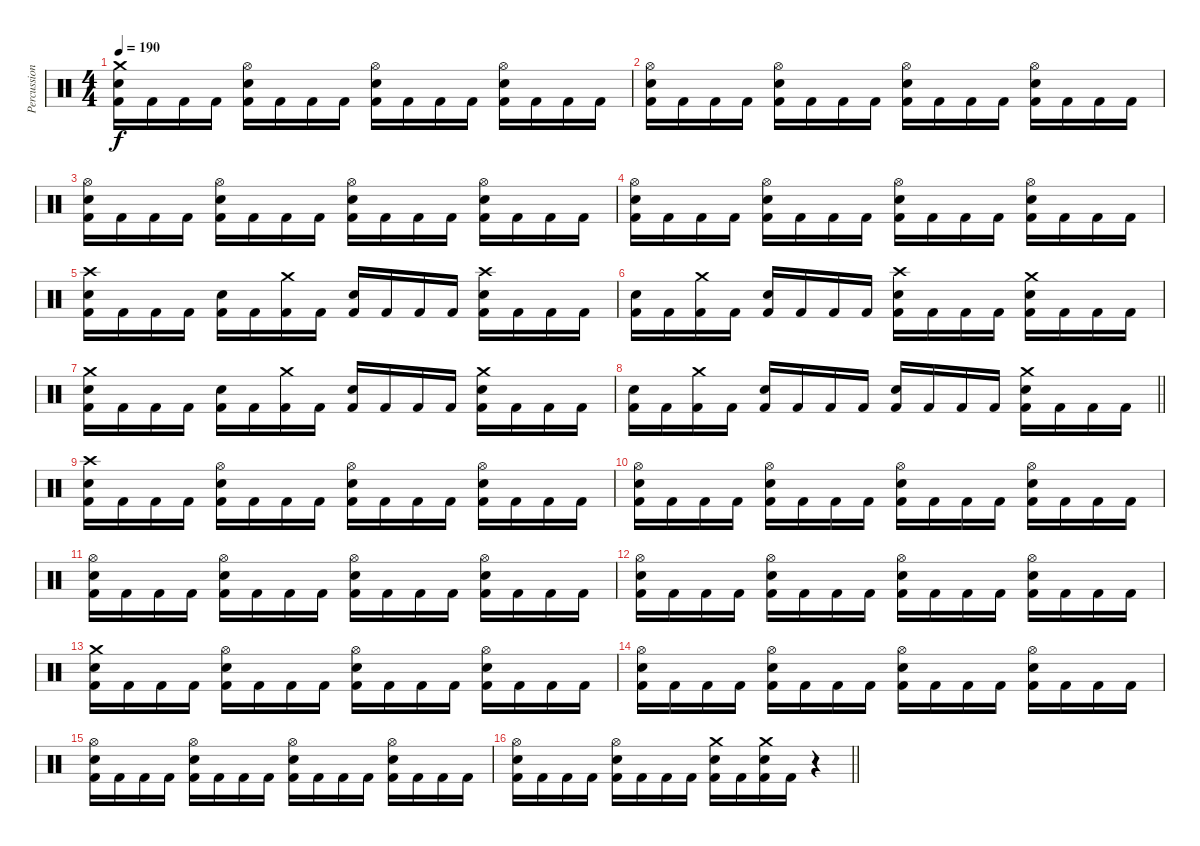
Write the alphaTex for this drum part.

\track ("Percussion" "Percussion") {instrument percussion}
\staff {score}
\articulation defaults
\ts (4 4)
\tempo 190
\clef neutral
\ks c
("Crash medium (hit)" "Snare (hit) 2" "Kick (hit) 2").16{dy f} "Kick (hit) 2".16 "Kick (hit) 2".16 "Kick (hit) 2".16 ("Hi-Hat (open)" "Snare (hit) 2" "Kick (hit) 2").16 "Kick (hit) 2".16 "Kick (hit) 2".16 "Kick (hit) 2".16 ("Hi-Hat (open)" "Snare (hit) 2" "Kick (hit) 2").16 "Kick (hit) 2".16 "Kick (hit) 2".16 "Kick (hit) 2".16 ("Hi-Hat (open)" "Snare (hit) 2" "Kick (hit) 2").16 "Kick (hit) 2".16 "Kick (hit) 2".16 "Kick (hit) 2".16 |
("Hi-Hat (open)" "Snare (hit) 2" "Kick (hit) 2").16 "Kick (hit) 2".16 "Kick (hit) 2".16 "Kick (hit) 2".16 ("Hi-Hat (open)" "Snare (hit) 2" "Kick (hit) 2").16 "Kick (hit) 2".16 "Kick (hit) 2".16 "Kick (hit) 2".16 ("Hi-Hat (open)" "Snare (hit) 2" "Kick (hit) 2").16 "Kick (hit) 2".16 "Kick (hit) 2".16 "Kick (hit) 2".16 ("Hi-Hat (open)" "Snare (hit) 2" "Kick (hit) 2").16 "Kick (hit) 2".16 "Kick (hit) 2".16 "Kick (hit) 2".16 |
("Hi-Hat (open)" "Snare (hit) 2" "Kick (hit) 2").16 "Kick (hit) 2".16 "Kick (hit) 2".16 "Kick (hit) 2".16 ("Hi-Hat (open)" "Snare (hit) 2" "Kick (hit) 2").16 "Kick (hit) 2".16 "Kick (hit) 2".16 "Kick (hit) 2".16 ("Hi-Hat (open)" "Snare (hit) 2" "Kick (hit) 2").16 "Kick (hit) 2".16 "Kick (hit) 2".16 "Kick (hit) 2".16 ("Hi-Hat (open)" "Snare (hit) 2" "Kick (hit) 2").16 "Kick (hit) 2".16 "Kick (hit) 2".16 "Kick (hit) 2".16 |
("Hi-Hat (open)" "Snare (hit) 2" "Kick (hit) 2").16 "Kick (hit) 2".16 "Kick (hit) 2".16 "Kick (hit) 2".16 ("Hi-Hat (open)" "Snare (hit) 2" "Kick (hit) 2").16 "Kick (hit) 2".16 "Kick (hit) 2".16 "Kick (hit) 2".16 ("Hi-Hat (open)" "Snare (hit) 2" "Kick (hit) 2").16 "Kick (hit) 2".16 "Kick (hit) 2".16 "Kick (hit) 2".16 ("Hi-Hat (open)" "Snare (hit) 2" "Kick (hit) 2").16 "Kick (hit) 2".16 "Kick (hit) 2".16 "Kick (hit) 2".16 |
("Crash high (hit)" "Snare (hit) 2" "Kick (hit) 2").16 "Kick (hit) 2".16 "Kick (hit) 2".16 "Kick (hit) 2".16 ("Snare (hit) 2" "Kick (hit) 2").16 "Kick (hit) 2".16 ("Crash medium (hit)" "Kick (hit) 2").16 "Kick (hit) 2".16 ("Snare (hit) 2" "Kick (hit) 2").16 "Kick (hit) 2".16 "Kick (hit) 2".16 "Kick (hit) 2".16 ("Crash high (hit)" "Snare (hit) 2" "Kick (hit) 2").16 "Kick (hit) 2".16 "Kick (hit) 2".16 "Kick (hit) 2".16 |
("Snare (hit) 2" "Kick (hit) 2").16 "Kick (hit) 2".16 ("Crash medium (hit)" "Kick (hit) 2").16 "Kick (hit) 2".16 ("Snare (hit) 2" "Kick (hit) 2").16 "Kick (hit) 2".16 "Kick (hit) 2".16 "Kick (hit) 2".16 ("Crash high (hit)" "Snare (hit) 2" "Kick (hit) 2").16 "Kick (hit) 2".16 "Kick (hit) 2".16 "Kick (hit) 2".16 ("Crash medium (hit)" "Snare (hit) 2" "Kick (hit) 2").16 "Kick (hit) 2".16 "Kick (hit) 2".16 "Kick (hit) 2".16 |
("Crash medium (hit)" "Snare (hit) 2" "Kick (hit) 2").16 "Kick (hit) 2".16 "Kick (hit) 2".16 "Kick (hit) 2".16 ("Snare (hit) 2" "Kick (hit) 2").16 "Kick (hit) 2".16 ("Crash medium (hit)" "Kick (hit) 2").16 "Kick (hit) 2".16 ("Snare (hit) 2" "Kick (hit) 2").16 "Kick (hit) 2".16 "Kick (hit) 2".16 "Kick (hit) 2".16 ("Crash medium (hit)" "Snare (hit) 2" "Kick (hit) 2").16 "Kick (hit) 2".16 "Kick (hit) 2".16 "Kick (hit) 2".16 |
\barLineRight lightlight
("Snare (hit) 2" "Kick (hit) 2").16 "Kick (hit) 2".16 ("Crash medium (hit)" "Kick (hit) 2").16 "Kick (hit) 2".16 ("Snare (hit) 2" "Kick (hit) 2").16 "Kick (hit) 2".16 "Kick (hit) 2".16 "Kick (hit) 2".16 ("Snare (hit) 2" "Kick (hit) 2").16 "Kick (hit) 2".16 "Kick (hit) 2".16 "Kick (hit) 2".16 ("Crash medium (hit)" "Snare (hit) 2" "Kick (hit) 2").16 "Kick (hit) 2".16 "Kick (hit) 2".16 "Kick (hit) 2".16 |
("Crash high (hit)" "Snare (hit) 2" "Kick (hit) 2").16 "Kick (hit) 2".16 "Kick (hit) 2".16 "Kick (hit) 2".16 ("Hi-Hat (open)" "Snare (hit) 2" "Kick (hit) 2").16 "Kick (hit) 2".16 "Kick (hit) 2".16 "Kick (hit) 2".16 ("Hi-Hat (open)" "Snare (hit) 2" "Kick (hit) 2").16 "Kick (hit) 2".16 "Kick (hit) 2".16 "Kick (hit) 2".16 ("Hi-Hat (open)" "Snare (hit) 2" "Kick (hit) 2").16 "Kick (hit) 2".16 "Kick (hit) 2".16 "Kick (hit) 2".16 |
("Hi-Hat (open)" "Snare (hit) 2" "Kick (hit) 2").16 "Kick (hit) 2".16 "Kick (hit) 2".16 "Kick (hit) 2".16 ("Hi-Hat (open)" "Snare (hit) 2" "Kick (hit) 2").16 "Kick (hit) 2".16 "Kick (hit) 2".16 "Kick (hit) 2".16 ("Hi-Hat (open)" "Snare (hit) 2" "Kick (hit) 2").16 "Kick (hit) 2".16 "Kick (hit) 2".16 "Kick (hit) 2".16 ("Hi-Hat (open)" "Snare (hit) 2" "Kick (hit) 2").16 "Kick (hit) 2".16 "Kick (hit) 2".16 "Kick (hit) 2".16 |
("Hi-Hat (open)" "Snare (hit) 2" "Kick (hit) 2").16 "Kick (hit) 2".16 "Kick (hit) 2".16 "Kick (hit) 2".16 ("Hi-Hat (open)" "Snare (hit) 2" "Kick (hit) 2").16 "Kick (hit) 2".16 "Kick (hit) 2".16 "Kick (hit) 2".16 ("Hi-Hat (open)" "Snare (hit) 2" "Kick (hit) 2").16 "Kick (hit) 2".16 "Kick (hit) 2".16 "Kick (hit) 2".16 ("Hi-Hat (open)" "Snare (hit) 2" "Kick (hit) 2").16 "Kick (hit) 2".16 "Kick (hit) 2".16 "Kick (hit) 2".16 |
("Hi-Hat (open)" "Snare (hit) 2" "Kick (hit) 2").16 "Kick (hit) 2".16 "Kick (hit) 2".16 "Kick (hit) 2".16 ("Hi-Hat (open)" "Snare (hit) 2" "Kick (hit) 2").16 "Kick (hit) 2".16 "Kick (hit) 2".16 "Kick (hit) 2".16 ("Hi-Hat (open)" "Snare (hit) 2" "Kick (hit) 2").16 "Kick (hit) 2".16 "Kick (hit) 2".16 "Kick (hit) 2".16 ("Hi-Hat (open)" "Snare (hit) 2" "Kick (hit) 2").16 "Kick (hit) 2".16 "Kick (hit) 2".16 "Kick (hit) 2".16 |
("Crash medium (hit)" "Snare (hit) 2" "Kick (hit) 2").16 "Kick (hit) 2".16 "Kick (hit) 2".16 "Kick (hit) 2".16 ("Hi-Hat (open)" "Snare (hit) 2" "Kick (hit) 2").16 "Kick (hit) 2".16 "Kick (hit) 2".16 "Kick (hit) 2".16 ("Hi-Hat (open)" "Snare (hit) 2" "Kick (hit) 2").16 "Kick (hit) 2".16 "Kick (hit) 2".16 "Kick (hit) 2".16 ("Hi-Hat (open)" "Snare (hit) 2" "Kick (hit) 2").16 "Kick (hit) 2".16 "Kick (hit) 2".16 "Kick (hit) 2".16 |
("Hi-Hat (open)" "Snare (hit) 2" "Kick (hit) 2").16 "Kick (hit) 2".16 "Kick (hit) 2".16 "Kick (hit) 2".16 ("Hi-Hat (open)" "Snare (hit) 2" "Kick (hit) 2").16 "Kick (hit) 2".16 "Kick (hit) 2".16 "Kick (hit) 2".16 ("Hi-Hat (open)" "Snare (hit) 2" "Kick (hit) 2").16 "Kick (hit) 2".16 "Kick (hit) 2".16 "Kick (hit) 2".16 ("Hi-Hat (open)" "Snare (hit) 2" "Kick (hit) 2").16 "Kick (hit) 2".16 "Kick (hit) 2".16 "Kick (hit) 2".16 |
("Hi-Hat (open)" "Snare (hit) 2" "Kick (hit) 2").16 "Kick (hit) 2".16 "Kick (hit) 2".16 "Kick (hit) 2".16 ("Hi-Hat (open)" "Snare (hit) 2" "Kick (hit) 2").16 "Kick (hit) 2".16 "Kick (hit) 2".16 "Kick (hit) 2".16 ("Hi-Hat (open)" "Snare (hit) 2" "Kick (hit) 2").16 "Kick (hit) 2".16 "Kick (hit) 2".16 "Kick (hit) 2".16 ("Hi-Hat (open)" "Snare (hit) 2" "Kick (hit) 2").16 "Kick (hit) 2".16 "Kick (hit) 2".16 "Kick (hit) 2".16 |
\barLineRight lightlight
("Hi-Hat (open)" "Snare (hit) 2" "Kick (hit) 2").16 "Kick (hit) 2".16 "Kick (hit) 2".16 "Kick (hit) 2".16 ("Hi-Hat (open)" "Snare (hit) 2" "Kick (hit) 2").16 "Kick (hit) 2".16 "Kick (hit) 2".16 "Kick (hit) 2".16 ("Crash medium (hit)" "Snare (hit) 2" "Kick (hit) 2").16 "Kick (hit) 2".16 ("Crash medium (hit)" "Snare (hit) 2" "Kick (hit) 2").16 "Kick (hit) 2".16 r.4
